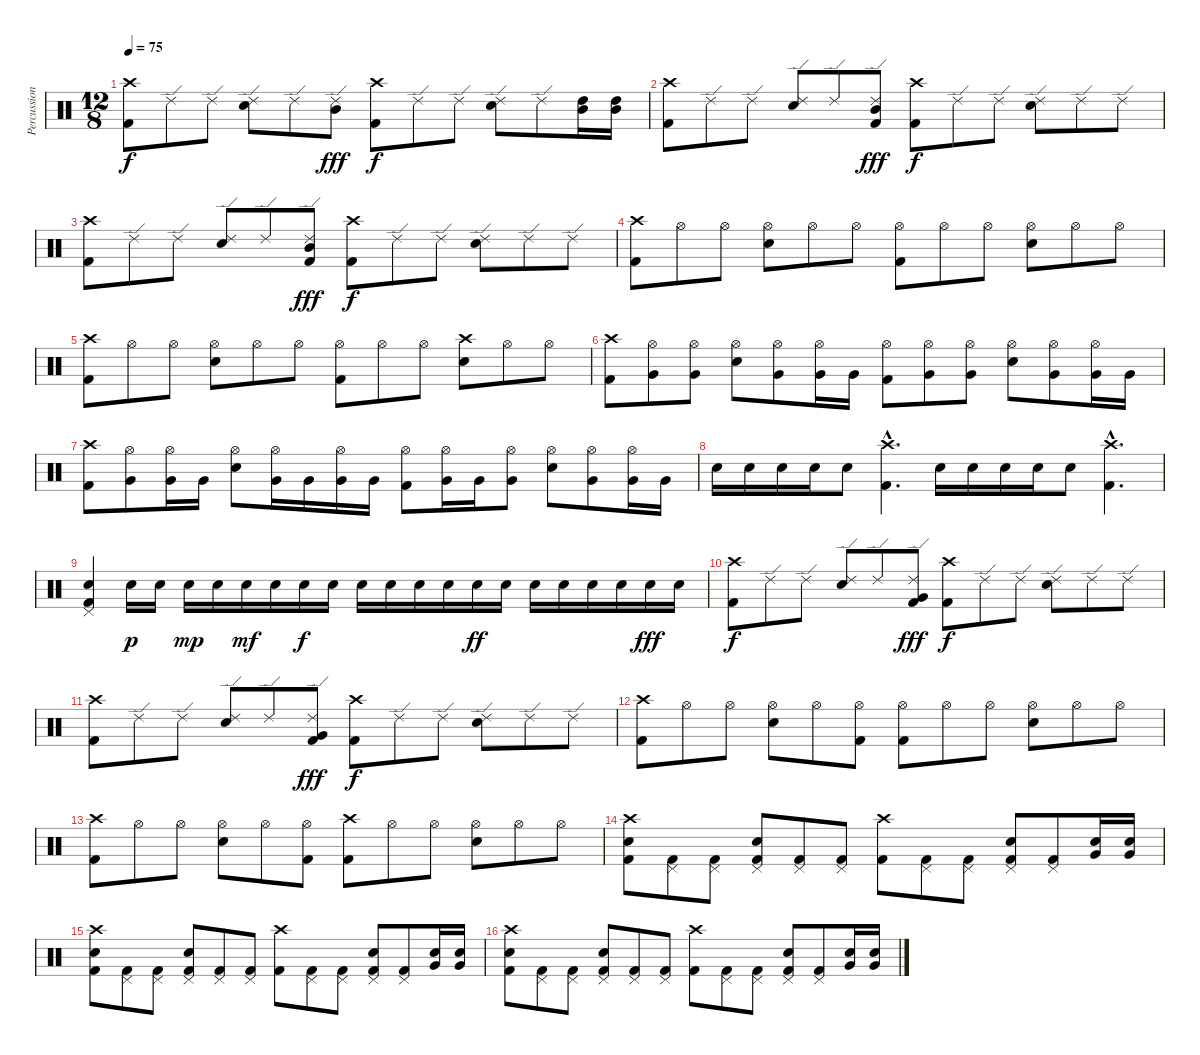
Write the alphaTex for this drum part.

\track ("Percussions" "Percussion") {instrument percussion}
\staff {score}
\articulation defaults
\ts (12 8)
\tempo 75
\clef neutral
\ks c
("Crash high (hit)" "Kick (hit) 2").8{dy f} "Ride (edge) 2".8 "Ride (edge) 2".8 ("Ride (edge) 2" "Electric Snare (hit)").8 "Ride (edge) 2".8 ("Ride (edge) 2" "Mid Tom (hit)").8{dy fff} ("Crash high (hit)" "Kick (hit) 2").8{dy f} "Ride (edge) 2".8 "Ride (edge) 2".8 ("Ride (edge) 2" "Electric Snare (hit)").8 "Ride (edge) 2".8 ("High Tom (hit)" "Mid Tom (hit)").16 ("High Tom (hit)" "Mid Tom (hit)").16 |
("Crash high (hit)" "Kick (hit) 2").8 "Ride (edge) 2".8 "Ride (edge) 2".8 ("Ride (edge) 2" "Electric Snare (hit)").8 "Ride (edge) 2".8 ("Ride (edge) 2" "Mid Tom (hit)" "Kick (hit) 2").8{dy fff} ("Crash high (hit)" "Kick (hit) 2").8{dy f} "Ride (edge) 2".8 "Ride (edge) 2".8 ("Ride (edge) 2" "Electric Snare (hit)").8 "Ride (edge) 2".8 "Ride (edge) 2".8 |
("Crash high (hit)" "Kick (hit) 2").8 "Ride (edge) 2".8 "Ride (edge) 2".8 ("Ride (edge) 2" "Electric Snare (hit)").8 "Ride (edge) 2".8 ("Ride (edge) 2" "Mid Tom (hit)" "Kick (hit) 2").8{dy fff} ("Crash high (hit)" "Kick (hit) 2").8{dy f} "Ride (edge) 2".8 "Ride (edge) 2".8 ("Ride (edge) 2" "Electric Snare (hit)").8 "Ride (edge) 2".8 "Ride (edge) 2".8 |
("Crash high (hit)" "Kick (hit) 2").8 "Hi-Hat (open)".8 "Hi-Hat (open)".8 ("Hi-Hat (open)" "Electric Snare (hit)").8 "Hi-Hat (open)".8 "Hi-Hat (open)".8 ("Hi-Hat (open)" "Kick (hit) 2").8 "Hi-Hat (open)".8 "Hi-Hat (open)".8 ("Hi-Hat (open)" "Electric Snare (hit)").8 "Hi-Hat (open)".8 "Hi-Hat (open)".8 |
("Crash high (hit)" "Kick (hit) 2").8 "Hi-Hat (open)".8 "Hi-Hat (open)".8 ("Hi-Hat (open)" "Electric Snare (hit)").8 "Hi-Hat (open)".8 "Hi-Hat (open)".8 ("Hi-Hat (open)" "Kick (hit) 2").8 "Hi-Hat (open)".8 "Hi-Hat (open)".8 ("Crash high (hit)" "Electric Snare (hit)").8 "Hi-Hat (open)".8 "Hi-Hat (open)".8 |
("Crash high (hit)" "Kick (hit) 2").8 ("Hi-Hat (open)" "Very Low Tom (hit)").8 ("Hi-Hat (open)" "Very Low Tom (hit)").8 ("Hi-Hat (open)" "Electric Snare (hit)").8 ("Hi-Hat (open)" "Very Low Tom (hit)").8 ("Hi-Hat (open)" "Very Low Tom (hit)").16 "Very Low Tom (hit)".16 ("Hi-Hat (open)" "Kick (hit) 2").8 ("Hi-Hat (open)" "Very Low Tom (hit)").8 ("Hi-Hat (open)" "Very Low Tom (hit)").8 ("Hi-Hat (open)" "Electric Snare (hit)").8 ("Hi-Hat (open)" "Very Low Tom (hit)").8 ("Hi-Hat (open)" "Very Low Tom (hit)").16 "Very Low Tom (hit)".16 |
("Crash high (hit)" "Kick (hit) 2").8 ("Hi-Hat (open)" "Very Low Tom (hit)").8 ("Hi-Hat (open)" "Very Low Tom (hit)").16 "Very Low Tom (hit)".16 ("Hi-Hat (open)" "Electric Snare (hit)").8 ("Hi-Hat (open)" "Very Low Tom (hit)").16 "Very Low Tom (hit)".16 ("Hi-Hat (open)" "Very Low Tom (hit)").16 "Very Low Tom (hit)".16 ("Hi-Hat (open)" "Kick (hit) 2").8 ("Hi-Hat (open)" "Very Low Tom (hit)").16 "Very Low Tom (hit)".16 ("Hi-Hat (open)" "Very Low Tom (hit)").8 ("Hi-Hat (open)" "Electric Snare (hit)").8 ("Hi-Hat (open)" "Very Low Tom (hit)").8 ("Hi-Hat (open)" "Very Low Tom (hit)").16 "Very Low Tom (hit)".16 |
"Electric Snare (hit)".16 "Electric Snare (hit)".16 "Electric Snare (hit)".16 "Electric Snare (hit)".16 "Electric Snare (hit)".8 ("Crash high (hit)"{hac} "Kick (hit) 2"{hac}).4{d} "Electric Snare (hit)".16 "Electric Snare (hit)".16 "Electric Snare (hit)".16 "Electric Snare (hit)".16 "Electric Snare (hit)".8 ("Crash high (hit)"{hac} "Kick (hit) 2"{hac}).4{d} |
("Pedal Hi-Hat (hit)" "Electric Snare (hit)" "Kick (hit) 2").4 "Electric Snare (hit)".16{dy p} "Electric Snare (hit)".16 "Electric Snare (hit)".16{dy mp} "Electric Snare (hit)".16 "Electric Snare (hit)".16{dy mf} "Electric Snare (hit)".16 "Electric Snare (hit)".16{dy f} "Electric Snare (hit)".16 "Electric Snare (hit)".16 "Electric Snare (hit)".16 "Electric Snare (hit)".16 "Electric Snare (hit)".16 "Electric Snare (hit)".16{dy ff} "Electric Snare (hit)".16 "Electric Snare (hit)".16 "Electric Snare (hit)".16 "Electric Snare (hit)".16 "Electric Snare (hit)".16 "Electric Snare (hit)".16{dy fff} "Electric Snare (hit)".16 |
("Crash high (hit)" "Kick (hit) 2").8{dy f} "Ride (edge) 2".8 "Ride (edge) 2".8 ("Ride (edge) 2" "Electric Snare (hit)").8 "Ride (edge) 2".8 ("Ride (edge) 2" "Very Low Tom (hit)" "Kick (hit) 2").8{dy fff} ("Crash high (hit)" "Kick (hit) 2").8{dy f} "Ride (edge) 2".8 "Ride (edge) 2".8 ("Ride (edge) 2" "Electric Snare (hit)").8 "Ride (edge) 2".8 "Ride (edge) 2".8 |
("Crash high (hit)" "Kick (hit) 2").8 "Ride (edge) 2".8 "Ride (edge) 2".8 ("Ride (edge) 2" "Electric Snare (hit)").8 "Ride (edge) 2".8 ("Ride (edge) 2" "Very Low Tom (hit)" "Kick (hit) 2").8{dy fff} ("Crash high (hit)" "Kick (hit) 2").8{dy f} "Ride (edge) 2".8 "Ride (edge) 2".8 ("Ride (edge) 2" "Electric Snare (hit)").8 "Ride (edge) 2".8 "Ride (edge) 2".8 |
("Crash high (hit)" "Kick (hit) 2").8 "Hi-Hat (open)".8 "Hi-Hat (open)".8 ("Hi-Hat (open)" "Electric Snare (hit)").8 "Hi-Hat (open)".8 ("Hi-Hat (open)" "Kick (hit) 2").8 ("Hi-Hat (open)" "Kick (hit) 2").8 "Hi-Hat (open)".8 "Hi-Hat (open)".8 ("Hi-Hat (open)" "Electric Snare (hit)").8 "Hi-Hat (open)".8 "Hi-Hat (open)".8 |
("Crash high (hit)" "Kick (hit) 2").8 "Hi-Hat (open)".8 "Hi-Hat (open)".8 ("Hi-Hat (open)" "Electric Snare (hit)").8 "Hi-Hat (open)".8 ("Hi-Hat (open)" "Kick (hit) 2").8 ("Crash high (hit)" "Kick (hit) 2").8 "Hi-Hat (open)".8 "Hi-Hat (open)".8 ("Hi-Hat (open)" "Electric Snare (hit)").8 "Hi-Hat (open)".8 "Hi-Hat (open)".8 |
("Crash high (hit)" "Electric Snare (hit)" "Kick (hit) 2").8 ("Pedal Hi-Hat (hit)" "Kick (hit) 2").8 ("Pedal Hi-Hat (hit)" "Kick (hit) 2").8 ("Pedal Hi-Hat (hit)" "Electric Snare (hit)" "Kick (hit) 2").8 ("Pedal Hi-Hat (hit)" "Kick (hit) 2").8 ("Pedal Hi-Hat (hit)" "Kick (hit) 2").8 ("Crash high (hit)" "Kick (hit) 2").8 ("Pedal Hi-Hat (hit)" "Kick (hit) 2").8 ("Pedal Hi-Hat (hit)" "Kick (hit) 2").8 ("Pedal Hi-Hat (hit)" "Electric Snare (hit)" "Kick (hit) 2").8 ("Pedal Hi-Hat (hit)" "Kick (hit) 2").8 ("Electric Snare (hit)" "Very Low Tom (hit)").16 ("Electric Snare (hit)" "Very Low Tom (hit)").16 |
("Crash high (hit)" "Electric Snare (hit)" "Kick (hit) 2").8 ("Pedal Hi-Hat (hit)" "Kick (hit) 2").8 ("Pedal Hi-Hat (hit)" "Kick (hit) 2").8 ("Pedal Hi-Hat (hit)" "Electric Snare (hit)" "Kick (hit) 2").8 ("Pedal Hi-Hat (hit)" "Kick (hit) 2").8 ("Pedal Hi-Hat (hit)" "Kick (hit) 2").8 ("Crash high (hit)" "Kick (hit) 2").8 ("Pedal Hi-Hat (hit)" "Kick (hit) 2").8 ("Pedal Hi-Hat (hit)" "Kick (hit) 2").8 ("Pedal Hi-Hat (hit)" "Electric Snare (hit)" "Kick (hit) 2").8 ("Pedal Hi-Hat (hit)" "Kick (hit) 2").8 ("Electric Snare (hit)" "Very Low Tom (hit)").16 ("Electric Snare (hit)" "Very Low Tom (hit)").16 |
("Crash high (hit)" "Electric Snare (hit)" "Kick (hit) 2").8 ("Pedal Hi-Hat (hit)" "Kick (hit) 2").8 ("Pedal Hi-Hat (hit)" "Kick (hit) 2").8 ("Pedal Hi-Hat (hit)" "Electric Snare (hit)" "Kick (hit) 2").8 ("Pedal Hi-Hat (hit)" "Kick (hit) 2").8 ("Pedal Hi-Hat (hit)" "Kick (hit) 2").8 ("Crash high (hit)" "Kick (hit) 2").8 ("Pedal Hi-Hat (hit)" "Kick (hit) 2").8 ("Pedal Hi-Hat (hit)" "Kick (hit) 2").8 ("Pedal Hi-Hat (hit)" "Electric Snare (hit)" "Kick (hit) 2").8 ("Pedal Hi-Hat (hit)" "Kick (hit) 2").8 ("Electric Snare (hit)" "Very Low Tom (hit)").16 ("Electric Snare (hit)" "Very Low Tom (hit)").16
